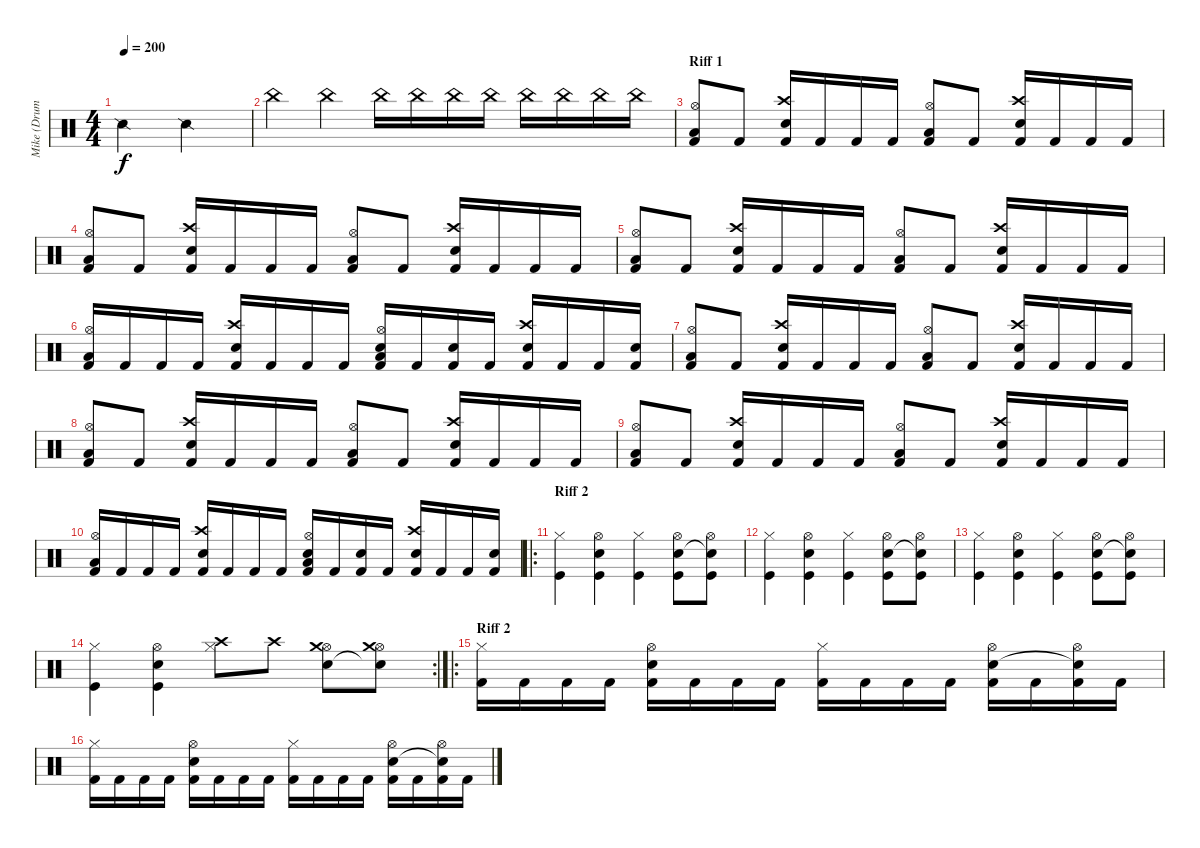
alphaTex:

\track ("Mike (Drums)" "Mike (Drum") {instrument percussion}
\staff {score}
\articulation defaults
\ts (4 4)
\tempo 200
\clef neutral
\ks c "Snare (side stick) 2".2{dy f} "Snare (side stick) 2".2
|
"China (hit)".4 "China (hit)".4 "China (hit)".16 "China (hit)".16 "China (hit)".16 "China (hit)".16 "China (hit)".16 "China (hit)".16 "China (hit)".16 "China (hit)".16 |
\section ("" "Riff 1")
("Low Tom (hit)" "Hi-Hat (open)" "Kick (hit) 2").8 "Kick (hit) 2".8 ("Crash high (hit)" "Snare (hit) 2" "Kick (hit) 2").16 "Kick (hit) 2".16 "Kick (hit) 2".16 "Kick (hit) 2".16 ("Low Tom (hit)" "Hi-Hat (open)" "Kick (hit) 2").8 "Kick (hit) 2".8 ("Crash high (hit)" "Snare (hit) 2" "Kick (hit) 2").16 "Kick (hit) 2".16 "Kick (hit) 2".16 "Kick (hit) 2".16 |
("Low Tom (hit)" "Hi-Hat (open)" "Kick (hit) 2").8 "Kick (hit) 2".8 ("Crash high (hit)" "Snare (hit) 2" "Kick (hit) 2").16 "Kick (hit) 2".16 "Kick (hit) 2".16 "Kick (hit) 2".16 ("Low Tom (hit)" "Hi-Hat (open)" "Kick (hit) 2").8 "Kick (hit) 2".8 ("Crash high (hit)" "Snare (hit) 2" "Kick (hit) 2").16 "Kick (hit) 2".16 "Kick (hit) 2".16 "Kick (hit) 2".16 |
("Low Tom (hit)" "Hi-Hat (open)" "Kick (hit) 2").8 "Kick (hit) 2".8 ("Crash high (hit)" "Snare (hit) 2" "Kick (hit) 2").16 "Kick (hit) 2".16 "Kick (hit) 2".16 "Kick (hit) 2".16 ("Low Tom (hit)" "Hi-Hat (open)" "Kick (hit) 2").8 "Kick (hit) 2".8 ("Crash high (hit)" "Snare (hit) 2" "Kick (hit) 2").16 "Kick (hit) 2".16 "Kick (hit) 2".16 "Kick (hit) 2".16 |
("Low Tom (hit)" "Hi-Hat (open)" "Kick (hit) 2").16 "Kick (hit) 2".16 "Kick (hit) 2".16 "Kick (hit) 2".16 ("Crash high (hit)" "Snare (hit) 2" "Kick (hit) 2").16 "Kick (hit) 2".16 "Kick (hit) 2".16 "Kick (hit) 2".16 ("Low Tom (hit)" "Snare (hit) 2" "Hi-Hat (open)" "Kick (hit) 2").16 "Kick (hit) 2".16 ("Snare (hit) 2" "Kick (hit) 2").16 "Kick (hit) 2".16 ("Crash high (hit)" "Snare (hit) 2" "Kick (hit) 2").16 "Kick (hit) 2".16 "Kick (hit) 2".16 ("Snare (hit) 2" "Kick (hit) 2").16 |
("Low Tom (hit)" "Hi-Hat (open)" "Kick (hit) 2").8 "Kick (hit) 2".8 ("Crash high (hit)" "Snare (hit) 2" "Kick (hit) 2").16 "Kick (hit) 2".16 "Kick (hit) 2".16 "Kick (hit) 2".16 ("Low Tom (hit)" "Hi-Hat (open)" "Kick (hit) 2").8 "Kick (hit) 2".8 ("Crash high (hit)" "Snare (hit) 2" "Kick (hit) 2").16 "Kick (hit) 2".16 "Kick (hit) 2".16 "Kick (hit) 2".16 |
("Low Tom (hit)" "Hi-Hat (open)" "Kick (hit) 2").8 "Kick (hit) 2".8 ("Crash high (hit)" "Snare (hit) 2" "Kick (hit) 2").16 "Kick (hit) 2".16 "Kick (hit) 2".16 "Kick (hit) 2".16 ("Low Tom (hit)" "Hi-Hat (open)" "Kick (hit) 2").8 "Kick (hit) 2".8 ("Crash high (hit)" "Snare (hit) 2" "Kick (hit) 2").16 "Kick (hit) 2".16 "Kick (hit) 2".16 "Kick (hit) 2".16 |
("Low Tom (hit)" "Hi-Hat (open)" "Kick (hit) 2").8 "Kick (hit) 2".8 ("Crash high (hit)" "Snare (hit) 2" "Kick (hit) 2").16 "Kick (hit) 2".16 "Kick (hit) 2".16 "Kick (hit) 2".16 ("Low Tom (hit)" "Hi-Hat (open)" "Kick (hit) 2").8 "Kick (hit) 2".8 ("Crash high (hit)" "Snare (hit) 2" "Kick (hit) 2").16 "Kick (hit) 2".16 "Kick (hit) 2".16 "Kick (hit) 2".16 |
("Low Tom (hit)" "Hi-Hat (open)" "Kick (hit) 2").16 "Kick (hit) 2".16 "Kick (hit) 2".16 "Kick (hit) 2".16 ("Crash high (hit)" "Snare (hit) 2" "Kick (hit) 2").16 "Kick (hit) 2".16 "Kick (hit) 2".16 "Kick (hit) 2".16 ("Low Tom (hit)" "Snare (hit) 2" "Hi-Hat (open)" "Kick (hit) 2").16 "Kick (hit) 2".16 ("Snare (hit) 2" "Kick (hit) 2").16 "Kick (hit) 2".16 ("Crash high (hit)" "Snare (hit) 2" "Kick (hit) 2").16 "Kick (hit) 2".16 "Kick (hit) 2".16 ("Snare (hit) 2" "Kick (hit) 2").16 |
\ro
\section ("" "Riff 2")
("Hi-Hat (closed)" "Kick (hit)").4 ("Hi-Hat (open)" "Snare (hit) 2" "Kick (hit)").4 ("Hi-Hat (closed)" "Kick (hit)").4 ("Hi-Hat (open)" "Snare (hit) 2" "Kick (hit)").8 ("Hi-Hat (open)" "Snare (hit)"{t} "Kick (hit)").8 |
("Hi-Hat (closed)" "Kick (hit)").4 ("Hi-Hat (open)" "Snare (hit) 2" "Kick (hit)").4 ("Hi-Hat (closed)" "Kick (hit)").4 ("Hi-Hat (open)" "Snare (hit) 2" "Kick (hit)").8 ("Hi-Hat (open)" "Snare (hit)"{t} "Kick (hit)").8 |
("Hi-Hat (closed)" "Kick (hit)").4 ("Hi-Hat (open)" "Snare (hit) 2" "Kick (hit)").4 ("Hi-Hat (closed)" "Kick (hit)").4 ("Hi-Hat (open)" "Snare (hit) 2" "Kick (hit)").8 ("Hi-Hat (open)" "Snare (hit)"{t} "Kick (hit)").8 |
\rc 2
("Hi-Hat (closed)" "Kick (hit)").4 ("Hi-Hat (open)" "Snare (hit) 2" "Kick (hit)").4 ("Hi-Hat (closed)" "Crash high (hit)").8 "Crash high (hit)".8 ("Hi-Hat (open)" "Snare (hit) 2" "Crash medium (hit)").8 ("Hi-Hat (open)" "Snare (hit)"{t} "Crash medium (hit)").8 |
\ro
\section ("" "Riff 2 ")
("Hi-Hat (closed)" "Kick (hit) 2").16 "Kick (hit) 2".16 "Kick (hit) 2".16 "Kick (hit) 2".16 ("Hi-Hat (open)" "Snare (hit) 2" "Kick (hit) 2").16 "Kick (hit) 2".16 "Kick (hit) 2".16 "Kick (hit) 2".16 ("Hi-Hat (closed)" "Kick (hit) 2").16 "Kick (hit) 2".16 "Kick (hit) 2".16 "Kick (hit) 2".16 ("Hi-Hat (open)" "Snare (hit) 2" "Kick (hit) 2").16 "Kick (hit) 2".16 ("Hi-Hat (open)" "Snare (hit)"{t} "Kick (hit) 2").16 "Kick (hit) 2".16 |
("Hi-Hat (closed)" "Kick (hit) 2").16 "Kick (hit) 2".16 "Kick (hit) 2".16 "Kick (hit) 2".16 ("Hi-Hat (open)" "Snare (hit) 2" "Kick (hit) 2").16 "Kick (hit) 2".16 "Kick (hit) 2".16 "Kick (hit) 2".16 ("Hi-Hat (closed)" "Kick (hit) 2").16 "Kick (hit) 2".16 "Kick (hit) 2".16 "Kick (hit) 2".16 ("Hi-Hat (open)" "Snare (hit) 2" "Kick (hit) 2").16 "Kick (hit) 2".16 ("Hi-Hat (open)" "Snare (hit)"{t} "Kick (hit) 2").16 "Kick (hit) 2".16
